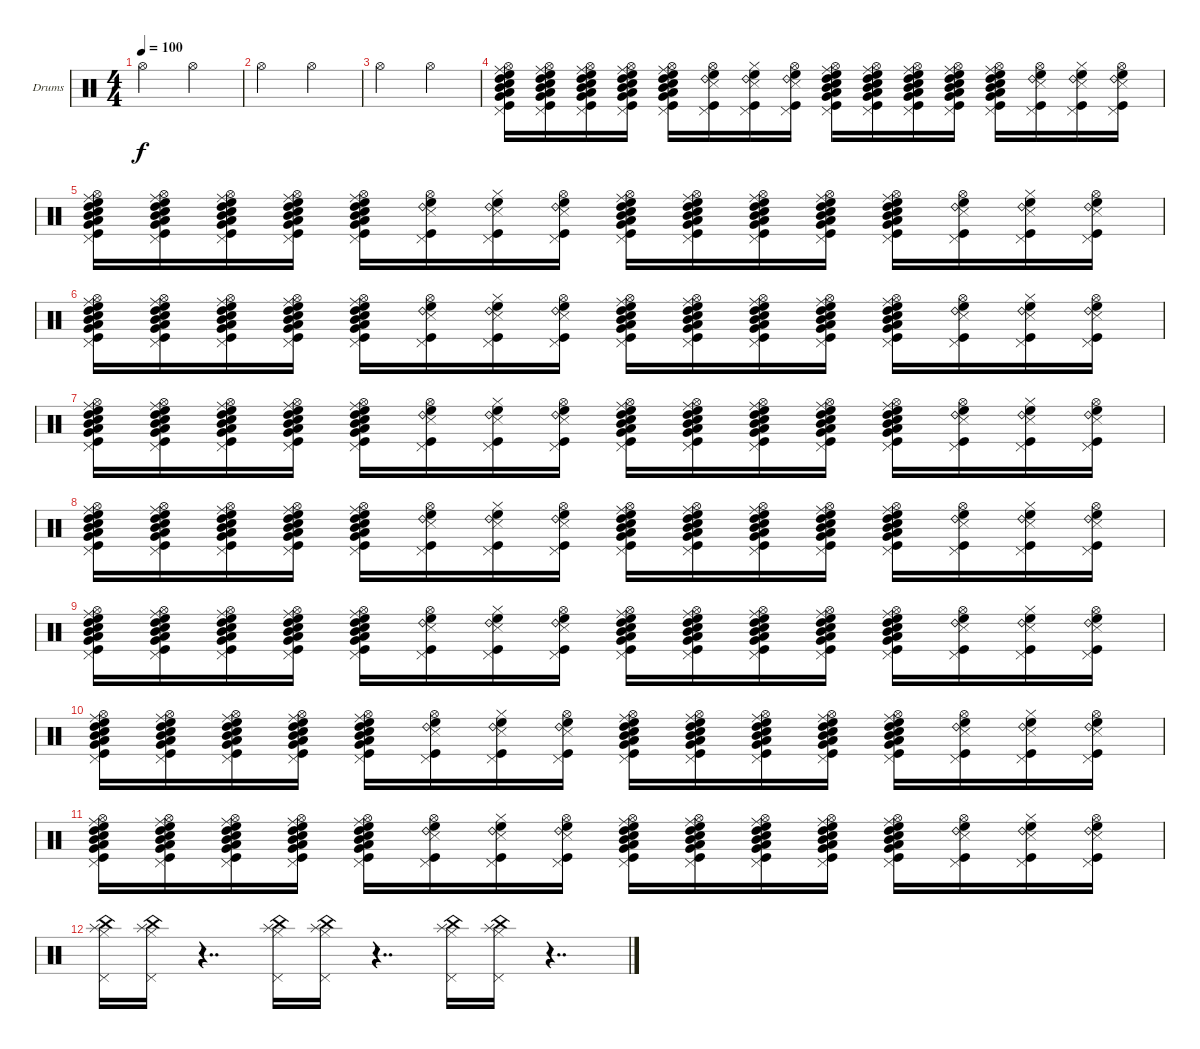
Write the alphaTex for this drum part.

\bracketExtendMode groupsimilarinstruments
\firstSystemTrackNameOrientation horizontal
\otherSystemsTrackNameOrientation horizontal
\track ("Drumkit" "Drums") {instrument percussion}
\staff {score}
\articulation defaults
\ts (4 4)
\tempo 100
\clef neutral
\scale
0.138346
\ks c "Hi-Hat (open)".2{dy f} "Hi-Hat (open)".2
|
\scale
0.138346 "Hi-Hat (open)".2 "Hi-Hat (open)".2 |
\scale
0.0576441 "Hi-Hat (open)".2 "Hi-Hat (open)".2 |
\scale
0.2143 ("Hi-Hat (open)" "Low Tom (hit)" "Pedal Hi-Hat (hit)" "Ride (middle)" "High Floor Tom (hit)" "High Tom (hit)" "Snare (hit) 2" "Mid Tom (hit)" "Very Low Tom (hit)" "Kick (hit)").16 ("Hi-Hat (open)" "Low Tom (hit)" "Pedal Hi-Hat (hit)" "Ride (middle)" "High Floor Tom (hit)" "High Tom (hit)" "Snare (hit) 2" "Mid Tom (hit)" "Very Low Tom (hit)" "Kick (hit)").16 ("Hi-Hat (open)" "Low Tom (hit)" "Pedal Hi-Hat (hit)" "Ride (middle)" "High Floor Tom (hit)" "High Tom (hit)" "Snare (hit) 2" "Mid Tom (hit)" "Very Low Tom (hit)" "Kick (hit)").16 ("Hi-Hat (open)" "Low Tom (hit)" "Pedal Hi-Hat (hit)" "Ride (middle)" "High Floor Tom (hit)" "High Tom (hit)" "Snare (hit) 2" "Mid Tom (hit)" "Very Low Tom (hit)" "Kick (hit)").16 ("Hi-Hat (open)" "Low Tom (hit)" "Pedal Hi-Hat (hit)" "Ride (middle)" "High Floor Tom (hit)" "High Tom (hit)" "Snare (hit) 2" "Mid Tom (hit)" "Very Low Tom (hit)" "Kick (hit)").16 ("Ride (bell) 2" "Hi-Hat (open)" "Pedal Hi-Hat (hit)" "Snare (side stick) 3" "High Floor Tom (hit)" "Kick (hit)").16 ("Ride (bell) 2" "Hi-Hat (closed)" "Pedal Hi-Hat (hit)" "Snare (side stick) 3" "High Floor Tom (hit)" "Kick (hit)").16 ("Ride (bell) 2" "Hi-Hat (open)" "Pedal Hi-Hat (hit)" "Snare (side stick) 3" "High Floor Tom (hit)" "Kick (hit)").16 ("Hi-Hat (open)" "Low Tom (hit)" "Pedal Hi-Hat (hit)" "Ride (middle)" "High Floor Tom (hit)" "High Tom (hit)" "Snare (hit) 2" "Mid Tom (hit)" "Very Low Tom (hit)" "Kick (hit)").16 ("Hi-Hat (open)" "Low Tom (hit)" "Pedal Hi-Hat (hit)" "Ride (middle)" "High Floor Tom (hit)" "High Tom (hit)" "Snare (hit) 2" "Mid Tom (hit)" "Very Low Tom (hit)" "Kick (hit)").16 ("Hi-Hat (open)" "Low Tom (hit)" "Pedal Hi-Hat (hit)" "Ride (middle)" "High Floor Tom (hit)" "High Tom (hit)" "Snare (hit) 2" "Mid Tom (hit)" "Very Low Tom (hit)" "Kick (hit)").16 ("Hi-Hat (open)" "Low Tom (hit)" "Pedal Hi-Hat (hit)" "Ride (middle)" "High Floor Tom (hit)" "High Tom (hit)" "Snare (hit) 2" "Mid Tom (hit)" "Very Low Tom (hit)" "Kick (hit)").16 ("Hi-Hat (open)" "Low Tom (hit)" "Pedal Hi-Hat (hit)" "Ride (middle)" "High Floor Tom (hit)" "High Tom (hit)" "Snare (hit) 2" "Mid Tom (hit)" "Very Low Tom (hit)" "Kick (hit)").16 ("Ride (bell) 2" "Hi-Hat (open)" "Pedal Hi-Hat (hit)" "Snare (side stick) 3" "High Floor Tom (hit)" "Kick (hit)").16 ("Ride (bell) 2" "Hi-Hat (closed)" "Pedal Hi-Hat (hit)" "Snare (side stick) 3" "High Floor Tom (hit)" "Kick (hit)").16 ("Ride (bell) 2" "Hi-Hat (open)" "Pedal Hi-Hat (hit)" "Snare (side stick) 3" "High Floor Tom (hit)" "Kick (hit)").16 |
("Hi-Hat (open)" "Low Tom (hit)" "Pedal Hi-Hat (hit)" "Ride (middle)" "High Floor Tom (hit)" "High Tom (hit)" "Snare (hit) 2" "Mid Tom (hit)" "Very Low Tom (hit)" "Kick (hit)").16 ("Hi-Hat (open)" "Low Tom (hit)" "Pedal Hi-Hat (hit)" "Ride (middle)" "High Floor Tom (hit)" "High Tom (hit)" "Snare (hit) 2" "Mid Tom (hit)" "Very Low Tom (hit)" "Kick (hit)").16 ("Hi-Hat (open)" "Low Tom (hit)" "Pedal Hi-Hat (hit)" "Ride (middle)" "High Floor Tom (hit)" "High Tom (hit)" "Snare (hit) 2" "Mid Tom (hit)" "Very Low Tom (hit)" "Kick (hit)").16 ("Hi-Hat (open)" "Low Tom (hit)" "Pedal Hi-Hat (hit)" "Ride (middle)" "High Floor Tom (hit)" "High Tom (hit)" "Snare (hit) 2" "Mid Tom (hit)" "Very Low Tom (hit)" "Kick (hit)").16 ("Hi-Hat (open)" "Low Tom (hit)" "Pedal Hi-Hat (hit)" "Ride (middle)" "High Floor Tom (hit)" "High Tom (hit)" "Snare (hit) 2" "Mid Tom (hit)" "Very Low Tom (hit)" "Kick (hit)").16 ("Ride (bell) 2" "Hi-Hat (open)" "Pedal Hi-Hat (hit)" "Snare (side stick) 3" "High Floor Tom (hit)" "Kick (hit)").16 ("Ride (bell) 2" "Hi-Hat (closed)" "Pedal Hi-Hat (hit)" "Snare (side stick) 3" "High Floor Tom (hit)" "Kick (hit)").16 ("Ride (bell) 2" "Hi-Hat (open)" "Pedal Hi-Hat (hit)" "Snare (side stick) 3" "High Floor Tom (hit)" "Kick (hit)").16 ("Hi-Hat (open)" "Low Tom (hit)" "Pedal Hi-Hat (hit)" "Ride (middle)" "High Floor Tom (hit)" "High Tom (hit)" "Snare (hit) 2" "Mid Tom (hit)" "Very Low Tom (hit)" "Kick (hit)").16 ("Hi-Hat (open)" "Low Tom (hit)" "Pedal Hi-Hat (hit)" "Ride (middle)" "High Floor Tom (hit)" "High Tom (hit)" "Snare (hit) 2" "Mid Tom (hit)" "Very Low Tom (hit)" "Kick (hit)").16 ("Hi-Hat (open)" "Low Tom (hit)" "Pedal Hi-Hat (hit)" "Ride (middle)" "High Floor Tom (hit)" "High Tom (hit)" "Snare (hit) 2" "Mid Tom (hit)" "Very Low Tom (hit)" "Kick (hit)").16 ("Hi-Hat (open)" "Low Tom (hit)" "Pedal Hi-Hat (hit)" "Ride (middle)" "High Floor Tom (hit)" "High Tom (hit)" "Snare (hit) 2" "Mid Tom (hit)" "Very Low Tom (hit)" "Kick (hit)").16 ("Hi-Hat (open)" "Low Tom (hit)" "Pedal Hi-Hat (hit)" "Ride (middle)" "High Floor Tom (hit)" "High Tom (hit)" "Snare (hit) 2" "Mid Tom (hit)" "Very Low Tom (hit)" "Kick (hit)").16 ("Ride (bell) 2" "Hi-Hat (open)" "Pedal Hi-Hat (hit)" "Snare (side stick) 3" "High Floor Tom (hit)" "Kick (hit)").16 ("Ride (bell) 2" "Hi-Hat (closed)" "Pedal Hi-Hat (hit)" "Snare (side stick) 3" "High Floor Tom (hit)" "Kick (hit)").16 ("Ride (bell) 2" "Hi-Hat (open)" "Pedal Hi-Hat (hit)" "Snare (side stick) 3" "High Floor Tom (hit)" "Kick (hit)").16 |
("Hi-Hat (open)" "Low Tom (hit)" "Pedal Hi-Hat (hit)" "Ride (middle)" "High Floor Tom (hit)" "High Tom (hit)" "Snare (hit) 2" "Mid Tom (hit)" "Very Low Tom (hit)" "Kick (hit)").16 ("Hi-Hat (open)" "Low Tom (hit)" "Pedal Hi-Hat (hit)" "Ride (middle)" "High Floor Tom (hit)" "High Tom (hit)" "Snare (hit) 2" "Mid Tom (hit)" "Very Low Tom (hit)" "Kick (hit)").16 ("Hi-Hat (open)" "Low Tom (hit)" "Pedal Hi-Hat (hit)" "Ride (middle)" "High Floor Tom (hit)" "High Tom (hit)" "Snare (hit) 2" "Mid Tom (hit)" "Very Low Tom (hit)" "Kick (hit)").16 ("Hi-Hat (open)" "Low Tom (hit)" "Pedal Hi-Hat (hit)" "Ride (middle)" "High Floor Tom (hit)" "High Tom (hit)" "Snare (hit) 2" "Mid Tom (hit)" "Very Low Tom (hit)" "Kick (hit)").16 ("Hi-Hat (open)" "Low Tom (hit)" "Pedal Hi-Hat (hit)" "Ride (middle)" "High Floor Tom (hit)" "High Tom (hit)" "Snare (hit) 2" "Mid Tom (hit)" "Very Low Tom (hit)" "Kick (hit)").16 ("Ride (bell) 2" "Hi-Hat (open)" "Pedal Hi-Hat (hit)" "Snare (side stick) 3" "High Floor Tom (hit)" "Kick (hit)").16 ("Ride (bell) 2" "Hi-Hat (closed)" "Pedal Hi-Hat (hit)" "Snare (side stick) 3" "High Floor Tom (hit)" "Kick (hit)").16 ("Ride (bell) 2" "Hi-Hat (open)" "Pedal Hi-Hat (hit)" "Snare (side stick) 3" "High Floor Tom (hit)" "Kick (hit)").16 ("Hi-Hat (open)" "Low Tom (hit)" "Pedal Hi-Hat (hit)" "Ride (middle)" "High Floor Tom (hit)" "High Tom (hit)" "Snare (hit) 2" "Mid Tom (hit)" "Very Low Tom (hit)" "Kick (hit)").16 ("Hi-Hat (open)" "Low Tom (hit)" "Pedal Hi-Hat (hit)" "Ride (middle)" "High Floor Tom (hit)" "High Tom (hit)" "Snare (hit) 2" "Mid Tom (hit)" "Very Low Tom (hit)" "Kick (hit)").16 ("Hi-Hat (open)" "Low Tom (hit)" "Pedal Hi-Hat (hit)" "Ride (middle)" "High Floor Tom (hit)" "High Tom (hit)" "Snare (hit) 2" "Mid Tom (hit)" "Very Low Tom (hit)" "Kick (hit)").16 ("Hi-Hat (open)" "Low Tom (hit)" "Pedal Hi-Hat (hit)" "Ride (middle)" "High Floor Tom (hit)" "High Tom (hit)" "Snare (hit) 2" "Mid Tom (hit)" "Very Low Tom (hit)" "Kick (hit)").16 ("Hi-Hat (open)" "Low Tom (hit)" "Pedal Hi-Hat (hit)" "Ride (middle)" "High Floor Tom (hit)" "High Tom (hit)" "Snare (hit) 2" "Mid Tom (hit)" "Very Low Tom (hit)" "Kick (hit)").16 ("Ride (bell) 2" "Hi-Hat (open)" "Pedal Hi-Hat (hit)" "Snare (side stick) 3" "High Floor Tom (hit)" "Kick (hit)").16 ("Ride (bell) 2" "Hi-Hat (closed)" "Pedal Hi-Hat (hit)" "Snare (side stick) 3" "High Floor Tom (hit)" "Kick (hit)").16 ("Ride (bell) 2" "Hi-Hat (open)" "Pedal Hi-Hat (hit)" "Snare (side stick) 3" "High Floor Tom (hit)" "Kick (hit)").16 |
("Hi-Hat (open)" "Low Tom (hit)" "Pedal Hi-Hat (hit)" "Ride (middle)" "High Floor Tom (hit)" "High Tom (hit)" "Snare (hit) 2" "Mid Tom (hit)" "Very Low Tom (hit)" "Kick (hit)").16 ("Hi-Hat (open)" "Low Tom (hit)" "Pedal Hi-Hat (hit)" "Ride (middle)" "High Floor Tom (hit)" "High Tom (hit)" "Snare (hit) 2" "Mid Tom (hit)" "Very Low Tom (hit)" "Kick (hit)").16 ("Hi-Hat (open)" "Low Tom (hit)" "Pedal Hi-Hat (hit)" "Ride (middle)" "High Floor Tom (hit)" "High Tom (hit)" "Snare (hit) 2" "Mid Tom (hit)" "Very Low Tom (hit)" "Kick (hit)").16 ("Hi-Hat (open)" "Low Tom (hit)" "Pedal Hi-Hat (hit)" "Ride (middle)" "High Floor Tom (hit)" "High Tom (hit)" "Snare (hit) 2" "Mid Tom (hit)" "Very Low Tom (hit)" "Kick (hit)").16 ("Hi-Hat (open)" "Low Tom (hit)" "Pedal Hi-Hat (hit)" "Ride (middle)" "High Floor Tom (hit)" "High Tom (hit)" "Snare (hit) 2" "Mid Tom (hit)" "Very Low Tom (hit)" "Kick (hit)").16 ("Ride (bell) 2" "Hi-Hat (open)" "Pedal Hi-Hat (hit)" "Snare (side stick) 3" "High Floor Tom (hit)" "Kick (hit)").16 ("Ride (bell) 2" "Hi-Hat (closed)" "Pedal Hi-Hat (hit)" "Snare (side stick) 3" "High Floor Tom (hit)" "Kick (hit)").16 ("Ride (bell) 2" "Hi-Hat (open)" "Pedal Hi-Hat (hit)" "Snare (side stick) 3" "High Floor Tom (hit)" "Kick (hit)").16 ("Hi-Hat (open)" "Low Tom (hit)" "Pedal Hi-Hat (hit)" "Ride (middle)" "High Floor Tom (hit)" "High Tom (hit)" "Snare (hit) 2" "Mid Tom (hit)" "Very Low Tom (hit)" "Kick (hit)").16 ("Hi-Hat (open)" "Low Tom (hit)" "Pedal Hi-Hat (hit)" "Ride (middle)" "High Floor Tom (hit)" "High Tom (hit)" "Snare (hit) 2" "Mid Tom (hit)" "Very Low Tom (hit)" "Kick (hit)").16 ("Hi-Hat (open)" "Low Tom (hit)" "Pedal Hi-Hat (hit)" "Ride (middle)" "High Floor Tom (hit)" "High Tom (hit)" "Snare (hit) 2" "Mid Tom (hit)" "Very Low Tom (hit)" "Kick (hit)").16 ("Hi-Hat (open)" "Low Tom (hit)" "Pedal Hi-Hat (hit)" "Ride (middle)" "High Floor Tom (hit)" "High Tom (hit)" "Snare (hit) 2" "Mid Tom (hit)" "Very Low Tom (hit)" "Kick (hit)").16 ("Hi-Hat (open)" "Low Tom (hit)" "Pedal Hi-Hat (hit)" "Ride (middle)" "High Floor Tom (hit)" "High Tom (hit)" "Snare (hit) 2" "Mid Tom (hit)" "Very Low Tom (hit)" "Kick (hit)").16 ("Ride (bell) 2" "Hi-Hat (open)" "Pedal Hi-Hat (hit)" "Snare (side stick) 3" "High Floor Tom (hit)" "Kick (hit)").16 ("Ride (bell) 2" "Hi-Hat (closed)" "Pedal Hi-Hat (hit)" "Snare (side stick) 3" "High Floor Tom (hit)" "Kick (hit)").16 ("Ride (bell) 2" "Hi-Hat (open)" "Pedal Hi-Hat (hit)" "Snare (side stick) 3" "High Floor Tom (hit)" "Kick (hit)").16 |
("Hi-Hat (open)" "Low Tom (hit)" "Pedal Hi-Hat (hit)" "Ride (middle)" "High Floor Tom (hit)" "High Tom (hit)" "Snare (hit) 2" "Mid Tom (hit)" "Very Low Tom (hit)" "Kick (hit)").16 ("Hi-Hat (open)" "Low Tom (hit)" "Pedal Hi-Hat (hit)" "Ride (middle)" "High Floor Tom (hit)" "High Tom (hit)" "Snare (hit) 2" "Mid Tom (hit)" "Very Low Tom (hit)" "Kick (hit)").16 ("Hi-Hat (open)" "Low Tom (hit)" "Pedal Hi-Hat (hit)" "Ride (middle)" "High Floor Tom (hit)" "High Tom (hit)" "Snare (hit) 2" "Mid Tom (hit)" "Very Low Tom (hit)" "Kick (hit)").16 ("Hi-Hat (open)" "Low Tom (hit)" "Pedal Hi-Hat (hit)" "Ride (middle)" "High Floor Tom (hit)" "High Tom (hit)" "Snare (hit) 2" "Mid Tom (hit)" "Very Low Tom (hit)" "Kick (hit)").16 ("Hi-Hat (open)" "Low Tom (hit)" "Pedal Hi-Hat (hit)" "Ride (middle)" "High Floor Tom (hit)" "High Tom (hit)" "Snare (hit) 2" "Mid Tom (hit)" "Very Low Tom (hit)" "Kick (hit)").16 ("Ride (bell) 2" "Hi-Hat (open)" "Pedal Hi-Hat (hit)" "Snare (side stick) 3" "High Floor Tom (hit)" "Kick (hit)").16 ("Ride (bell) 2" "Hi-Hat (closed)" "Pedal Hi-Hat (hit)" "Snare (side stick) 3" "High Floor Tom (hit)" "Kick (hit)").16 ("Ride (bell) 2" "Hi-Hat (open)" "Pedal Hi-Hat (hit)" "Snare (side stick) 3" "High Floor Tom (hit)" "Kick (hit)").16 ("Hi-Hat (open)" "Low Tom (hit)" "Pedal Hi-Hat (hit)" "Ride (middle)" "High Floor Tom (hit)" "High Tom (hit)" "Snare (hit) 2" "Mid Tom (hit)" "Very Low Tom (hit)" "Kick (hit)").16 ("Hi-Hat (open)" "Low Tom (hit)" "Pedal Hi-Hat (hit)" "Ride (middle)" "High Floor Tom (hit)" "High Tom (hit)" "Snare (hit) 2" "Mid Tom (hit)" "Very Low Tom (hit)" "Kick (hit)").16 ("Hi-Hat (open)" "Low Tom (hit)" "Pedal Hi-Hat (hit)" "Ride (middle)" "High Floor Tom (hit)" "High Tom (hit)" "Snare (hit) 2" "Mid Tom (hit)" "Very Low Tom (hit)" "Kick (hit)").16 ("Hi-Hat (open)" "Low Tom (hit)" "Pedal Hi-Hat (hit)" "Ride (middle)" "High Floor Tom (hit)" "High Tom (hit)" "Snare (hit) 2" "Mid Tom (hit)" "Very Low Tom (hit)" "Kick (hit)").16 ("Hi-Hat (open)" "Low Tom (hit)" "Pedal Hi-Hat (hit)" "Ride (middle)" "High Floor Tom (hit)" "High Tom (hit)" "Snare (hit) 2" "Mid Tom (hit)" "Very Low Tom (hit)" "Kick (hit)").16 ("Ride (bell) 2" "Hi-Hat (open)" "Pedal Hi-Hat (hit)" "Snare (side stick) 3" "High Floor Tom (hit)" "Kick (hit)").16 ("Ride (bell) 2" "Hi-Hat (closed)" "Pedal Hi-Hat (hit)" "Snare (side stick) 3" "High Floor Tom (hit)" "Kick (hit)").16 ("Ride (bell) 2" "Hi-Hat (open)" "Pedal Hi-Hat (hit)" "Snare (side stick) 3" "High Floor Tom (hit)" "Kick (hit)").16 |
("Hi-Hat (open)" "Low Tom (hit)" "Pedal Hi-Hat (hit)" "Ride (middle)" "High Floor Tom (hit)" "High Tom (hit)" "Snare (hit) 2" "Mid Tom (hit)" "Very Low Tom (hit)" "Kick (hit)").16 ("Hi-Hat (open)" "Low Tom (hit)" "Pedal Hi-Hat (hit)" "Ride (middle)" "High Floor Tom (hit)" "High Tom (hit)" "Snare (hit) 2" "Mid Tom (hit)" "Very Low Tom (hit)" "Kick (hit)").16 ("Hi-Hat (open)" "Low Tom (hit)" "Pedal Hi-Hat (hit)" "Ride (middle)" "High Floor Tom (hit)" "High Tom (hit)" "Snare (hit) 2" "Mid Tom (hit)" "Very Low Tom (hit)" "Kick (hit)").16 ("Hi-Hat (open)" "Low Tom (hit)" "Pedal Hi-Hat (hit)" "Ride (middle)" "High Floor Tom (hit)" "High Tom (hit)" "Snare (hit) 2" "Mid Tom (hit)" "Very Low Tom (hit)" "Kick (hit)").16 ("Hi-Hat (open)" "Low Tom (hit)" "Pedal Hi-Hat (hit)" "Ride (middle)" "High Floor Tom (hit)" "High Tom (hit)" "Snare (hit) 2" "Mid Tom (hit)" "Very Low Tom (hit)" "Kick (hit)").16 ("Ride (bell) 2" "Hi-Hat (open)" "Pedal Hi-Hat (hit)" "Snare (side stick) 3" "High Floor Tom (hit)" "Kick (hit)").16 ("Ride (bell) 2" "Hi-Hat (closed)" "Pedal Hi-Hat (hit)" "Snare (side stick) 3" "High Floor Tom (hit)" "Kick (hit)").16 ("Ride (bell) 2" "Hi-Hat (open)" "Pedal Hi-Hat (hit)" "Snare (side stick) 3" "High Floor Tom (hit)" "Kick (hit)").16 ("Hi-Hat (open)" "Low Tom (hit)" "Pedal Hi-Hat (hit)" "Ride (middle)" "High Floor Tom (hit)" "High Tom (hit)" "Snare (hit) 2" "Mid Tom (hit)" "Very Low Tom (hit)" "Kick (hit)").16 ("Hi-Hat (open)" "Low Tom (hit)" "Pedal Hi-Hat (hit)" "Ride (middle)" "High Floor Tom (hit)" "High Tom (hit)" "Snare (hit) 2" "Mid Tom (hit)" "Very Low Tom (hit)" "Kick (hit)").16 ("Hi-Hat (open)" "Low Tom (hit)" "Pedal Hi-Hat (hit)" "Ride (middle)" "High Floor Tom (hit)" "High Tom (hit)" "Snare (hit) 2" "Mid Tom (hit)" "Very Low Tom (hit)" "Kick (hit)").16 ("Hi-Hat (open)" "Low Tom (hit)" "Pedal Hi-Hat (hit)" "Ride (middle)" "High Floor Tom (hit)" "High Tom (hit)" "Snare (hit) 2" "Mid Tom (hit)" "Very Low Tom (hit)" "Kick (hit)").16 ("Hi-Hat (open)" "Low Tom (hit)" "Pedal Hi-Hat (hit)" "Ride (middle)" "High Floor Tom (hit)" "High Tom (hit)" "Snare (hit) 2" "Mid Tom (hit)" "Very Low Tom (hit)" "Kick (hit)").16 ("Ride (bell) 2" "Hi-Hat (open)" "Pedal Hi-Hat (hit)" "Snare (side stick) 3" "High Floor Tom (hit)" "Kick (hit)").16 ("Ride (bell) 2" "Hi-Hat (closed)" "Pedal Hi-Hat (hit)" "Snare (side stick) 3" "High Floor Tom (hit)" "Kick (hit)").16 ("Ride (bell) 2" "Hi-Hat (open)" "Pedal Hi-Hat (hit)" "Snare (side stick) 3" "High Floor Tom (hit)" "Kick (hit)").16 |
("Hi-Hat (open)" "Low Tom (hit)" "Pedal Hi-Hat (hit)" "Ride (middle)" "High Floor Tom (hit)" "High Tom (hit)" "Snare (hit) 2" "Mid Tom (hit)" "Very Low Tom (hit)" "Kick (hit)").16 ("Hi-Hat (open)" "Low Tom (hit)" "Pedal Hi-Hat (hit)" "Ride (middle)" "High Floor Tom (hit)" "High Tom (hit)" "Snare (hit) 2" "Mid Tom (hit)" "Very Low Tom (hit)" "Kick (hit)").16 ("Hi-Hat (open)" "Low Tom (hit)" "Pedal Hi-Hat (hit)" "Ride (middle)" "High Floor Tom (hit)" "High Tom (hit)" "Snare (hit) 2" "Mid Tom (hit)" "Very Low Tom (hit)" "Kick (hit)").16 ("Hi-Hat (open)" "Low Tom (hit)" "Pedal Hi-Hat (hit)" "Ride (middle)" "High Floor Tom (hit)" "High Tom (hit)" "Snare (hit) 2" "Mid Tom (hit)" "Very Low Tom (hit)" "Kick (hit)").16 ("Hi-Hat (open)" "Low Tom (hit)" "Pedal Hi-Hat (hit)" "Ride (middle)" "High Floor Tom (hit)" "High Tom (hit)" "Snare (hit) 2" "Mid Tom (hit)" "Very Low Tom (hit)" "Kick (hit)").16 ("Ride (bell) 2" "Hi-Hat (open)" "Pedal Hi-Hat (hit)" "Snare (side stick) 3" "High Floor Tom (hit)" "Kick (hit)").16 ("Ride (bell) 2" "Hi-Hat (closed)" "Pedal Hi-Hat (hit)" "Snare (side stick) 3" "High Floor Tom (hit)" "Kick (hit)").16 ("Ride (bell) 2" "Hi-Hat (open)" "Pedal Hi-Hat (hit)" "Snare (side stick) 3" "High Floor Tom (hit)" "Kick (hit)").16 ("Hi-Hat (open)" "Low Tom (hit)" "Pedal Hi-Hat (hit)" "Ride (middle)" "High Floor Tom (hit)" "High Tom (hit)" "Snare (hit) 2" "Mid Tom (hit)" "Very Low Tom (hit)" "Kick (hit)").16 ("Hi-Hat (open)" "Low Tom (hit)" "Pedal Hi-Hat (hit)" "Ride (middle)" "High Floor Tom (hit)" "High Tom (hit)" "Snare (hit) 2" "Mid Tom (hit)" "Very Low Tom (hit)" "Kick (hit)").16 ("Hi-Hat (open)" "Low Tom (hit)" "Pedal Hi-Hat (hit)" "Ride (middle)" "High Floor Tom (hit)" "High Tom (hit)" "Snare (hit) 2" "Mid Tom (hit)" "Very Low Tom (hit)" "Kick (hit)").16 ("Hi-Hat (open)" "Low Tom (hit)" "Pedal Hi-Hat (hit)" "Ride (middle)" "High Floor Tom (hit)" "High Tom (hit)" "Snare (hit) 2" "Mid Tom (hit)" "Very Low Tom (hit)" "Kick (hit)").16 ("Hi-Hat (open)" "Low Tom (hit)" "Pedal Hi-Hat (hit)" "Ride (middle)" "High Floor Tom (hit)" "High Tom (hit)" "Snare (hit) 2" "Mid Tom (hit)" "Very Low Tom (hit)" "Kick (hit)").16 ("Ride (bell) 2" "Hi-Hat (open)" "Pedal Hi-Hat (hit)" "Snare (side stick) 3" "High Floor Tom (hit)" "Kick (hit)").16 ("Ride (bell) 2" "Hi-Hat (closed)" "Pedal Hi-Hat (hit)" "Snare (side stick) 3" "High Floor Tom (hit)" "Kick (hit)").16 ("Ride (bell) 2" "Hi-Hat (open)" "Pedal Hi-Hat (hit)" "Snare (side stick) 3" "High Floor Tom (hit)" "Kick (hit)").16 |
("Hi-Hat (open)" "Low Tom (hit)" "Pedal Hi-Hat (hit)" "Ride (middle)" "High Floor Tom (hit)" "High Tom (hit)" "Snare (hit) 2" "Mid Tom (hit)" "Very Low Tom (hit)" "Kick (hit)").16 ("Hi-Hat (open)" "Low Tom (hit)" "Pedal Hi-Hat (hit)" "Ride (middle)" "High Floor Tom (hit)" "High Tom (hit)" "Snare (hit) 2" "Mid Tom (hit)" "Very Low Tom (hit)" "Kick (hit)").16 ("Hi-Hat (open)" "Low Tom (hit)" "Pedal Hi-Hat (hit)" "Ride (middle)" "High Floor Tom (hit)" "High Tom (hit)" "Snare (hit) 2" "Mid Tom (hit)" "Very Low Tom (hit)" "Kick (hit)").16 ("Hi-Hat (open)" "Low Tom (hit)" "Pedal Hi-Hat (hit)" "Ride (middle)" "High Floor Tom (hit)" "High Tom (hit)" "Snare (hit) 2" "Mid Tom (hit)" "Very Low Tom (hit)" "Kick (hit)").16 ("Hi-Hat (open)" "Low Tom (hit)" "Pedal Hi-Hat (hit)" "Ride (middle)" "High Floor Tom (hit)" "High Tom (hit)" "Snare (hit) 2" "Mid Tom (hit)" "Very Low Tom (hit)" "Kick (hit)").16 ("Ride (bell) 2" "Hi-Hat (open)" "Pedal Hi-Hat (hit)" "Snare (side stick) 3" "High Floor Tom (hit)" "Kick (hit)").16 ("Ride (bell) 2" "Hi-Hat (closed)" "Pedal Hi-Hat (hit)" "Snare (side stick) 3" "High Floor Tom (hit)" "Kick (hit)").16 ("Ride (bell) 2" "Hi-Hat (open)" "Pedal Hi-Hat (hit)" "Snare (side stick) 3" "High Floor Tom (hit)" "Kick (hit)").16 ("Hi-Hat (open)" "Low Tom (hit)" "Pedal Hi-Hat (hit)" "Ride (middle)" "High Floor Tom (hit)" "High Tom (hit)" "Snare (hit) 2" "Mid Tom (hit)" "Very Low Tom (hit)" "Kick (hit)").16 ("Hi-Hat (open)" "Low Tom (hit)" "Pedal Hi-Hat (hit)" "Ride (middle)" "High Floor Tom (hit)" "High Tom (hit)" "Snare (hit) 2" "Mid Tom (hit)" "Very Low Tom (hit)" "Kick (hit)").16 ("Hi-Hat (open)" "Low Tom (hit)" "Pedal Hi-Hat (hit)" "Ride (middle)" "High Floor Tom (hit)" "High Tom (hit)" "Snare (hit) 2" "Mid Tom (hit)" "Very Low Tom (hit)" "Kick (hit)").16 ("Hi-Hat (open)" "Low Tom (hit)" "Pedal Hi-Hat (hit)" "Ride (middle)" "High Floor Tom (hit)" "High Tom (hit)" "Snare (hit) 2" "Mid Tom (hit)" "Very Low Tom (hit)" "Kick (hit)").16 ("Hi-Hat (open)" "Low Tom (hit)" "Pedal Hi-Hat (hit)" "Ride (middle)" "High Floor Tom (hit)" "High Tom (hit)" "Snare (hit) 2" "Mid Tom (hit)" "Very Low Tom (hit)" "Kick (hit)").16 ("Ride (bell) 2" "Hi-Hat (open)" "Pedal Hi-Hat (hit)" "Snare (side stick) 3" "High Floor Tom (hit)" "Kick (hit)").16 ("Ride (bell) 2" "Hi-Hat (closed)" "Pedal Hi-Hat (hit)" "Snare (side stick) 3" "High Floor Tom (hit)" "Kick (hit)").16 ("Ride (bell) 2" "Hi-Hat (open)" "Pedal Hi-Hat (hit)" "Snare (side stick) 3" "High Floor Tom (hit)" "Kick (hit)").16 |
("Hi-Hat (closed)" "Splash (hit)" "China (hit)" "Pedal Hi-Hat (hit)").16 ("Splash (hit)" "China (hit)" "Pedal Hi-Hat (hit)" "Hi-Hat (closed)").16 r.4{dd} ("Hi-Hat (closed)" "Splash (hit)" "China (hit)" "Pedal Hi-Hat (hit)").16 ("Splash (hit)" "China (hit)" "Pedal Hi-Hat (hit)" "Hi-Hat (closed)").16 r.4{dd} ("Hi-Hat (closed)" "Splash (hit)" "China (hit)" "Pedal Hi-Hat (hit)").16 ("Splash (hit)" "China (hit)" "Pedal Hi-Hat (hit)" "Hi-Hat (closed)").16 r.4{dd}
